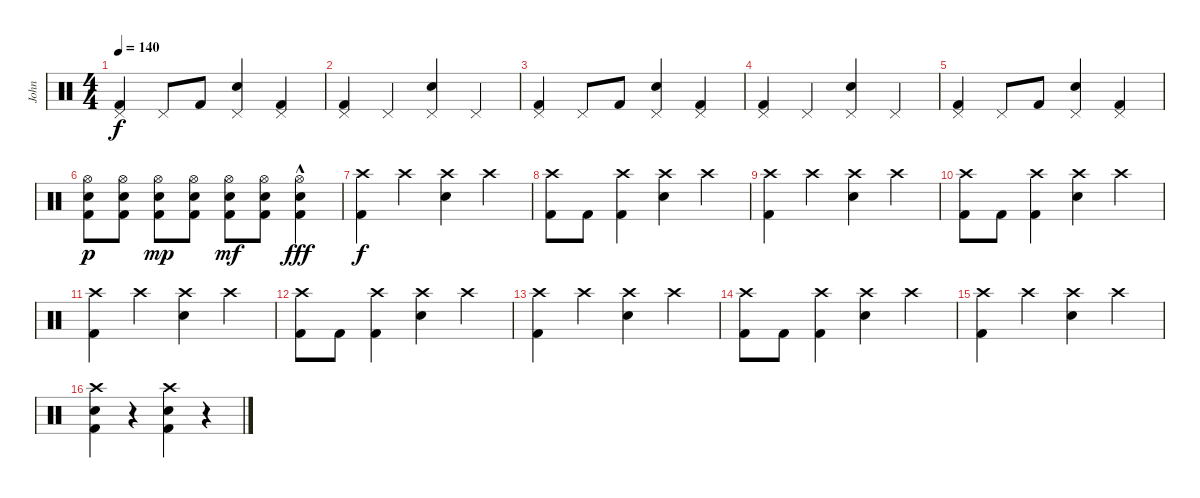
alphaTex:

\track ("John" "John") {instrument percussion}
\staff {score}
\articulation defaults
\ts (4 4)
\tempo 140
\clef neutral
\ks c
("Pedal Hi-Hat (hit)" "Kick (hit) 2").4{dy f} "Pedal Hi-Hat (hit)".8 "Kick (hit) 2".8 ("Pedal Hi-Hat (hit)" "Electric Snare (hit)").4 ("Pedal Hi-Hat (hit)" "Kick (hit) 2").4 |
("Pedal Hi-Hat (hit)" "Kick (hit) 2").4 "Pedal Hi-Hat (hit)".4 ("Pedal Hi-Hat (hit)" "Electric Snare (hit)").4 "Pedal Hi-Hat (hit)".4 |
("Pedal Hi-Hat (hit)" "Kick (hit) 2").4 "Pedal Hi-Hat (hit)".8 "Kick (hit) 2".8 ("Pedal Hi-Hat (hit)" "Electric Snare (hit)").4 ("Pedal Hi-Hat (hit)" "Kick (hit) 2").4 |
("Pedal Hi-Hat (hit)" "Kick (hit) 2").4 "Pedal Hi-Hat (hit)".4 ("Pedal Hi-Hat (hit)" "Electric Snare (hit)").4 "Pedal Hi-Hat (hit)".4 |
("Pedal Hi-Hat (hit)" "Kick (hit) 2").4 "Pedal Hi-Hat (hit)".8 "Kick (hit) 2".8 ("Pedal Hi-Hat (hit)" "Electric Snare (hit)").4 ("Pedal Hi-Hat (hit)" "Kick (hit) 2").4 |
("Hi-Hat (open)" "Electric Snare (hit)" "Kick (hit) 2").8{dy p} ("Hi-Hat (open)" "Electric Snare (hit)" "Kick (hit) 2").8 ("Hi-Hat (open)" "Electric Snare (hit)" "Kick (hit) 2").8{dy mp} ("Hi-Hat (open)" "Electric Snare (hit)" "Kick (hit) 2").8 ("Hi-Hat (open)" "Electric Snare (hit)" "Kick (hit) 2").8{dy mf} ("Hi-Hat (open)" "Electric Snare (hit)" "Kick (hit) 2").8 ("Hi-Hat (open)"{hac} "Electric Snare (hit)"{hac} "Kick (hit) 2"{hac}).4{dy fff} |
("Crash high (hit)" "Kick (hit) 2").4{dy f} "Crash high (hit)".4 ("Crash high (hit)" "Electric Snare (hit)").4 "Crash high (hit)".4 |
("Crash high (hit)" "Kick (hit) 2").8 "Kick (hit) 2".8 ("Crash high (hit)" "Kick (hit) 2").4 ("Crash high (hit)" "Electric Snare (hit)").4 "Crash high (hit)".4 |
("Crash high (hit)" "Kick (hit) 2").4 "Crash high (hit)".4 ("Crash high (hit)" "Electric Snare (hit)").4 "Crash high (hit)".4 |
("Crash high (hit)" "Kick (hit) 2").8 "Kick (hit) 2".8 ("Crash high (hit)" "Kick (hit) 2").4 ("Crash high (hit)" "Electric Snare (hit)").4 "Crash high (hit)".4 |
("Crash high (hit)" "Kick (hit) 2").4 "Crash high (hit)".4 ("Crash high (hit)" "Electric Snare (hit)").4 "Crash high (hit)".4 |
("Crash high (hit)" "Kick (hit) 2").8 "Kick (hit) 2".8 ("Crash high (hit)" "Kick (hit) 2").4 ("Crash high (hit)" "Electric Snare (hit)").4 "Crash high (hit)".4 |
("Crash high (hit)" "Kick (hit) 2").4 "Crash high (hit)".4 ("Crash high (hit)" "Electric Snare (hit)").4 "Crash high (hit)".4 |
("Crash high (hit)" "Kick (hit) 2").8 "Kick (hit) 2".8 ("Crash high (hit)" "Kick (hit) 2").4 ("Crash high (hit)" "Electric Snare (hit)").4 "Crash high (hit)".4 |
("Crash high (hit)" "Kick (hit) 2").4 "Crash high (hit)".4 ("Crash high (hit)" "Electric Snare (hit)").4 "Crash high (hit)".4 |
("Crash high (hit)" "Electric Snare (hit)" "Kick (hit) 2").4 r.4 ("Crash high (hit)" "Electric Snare (hit)" "Kick (hit) 2").4 r.4
